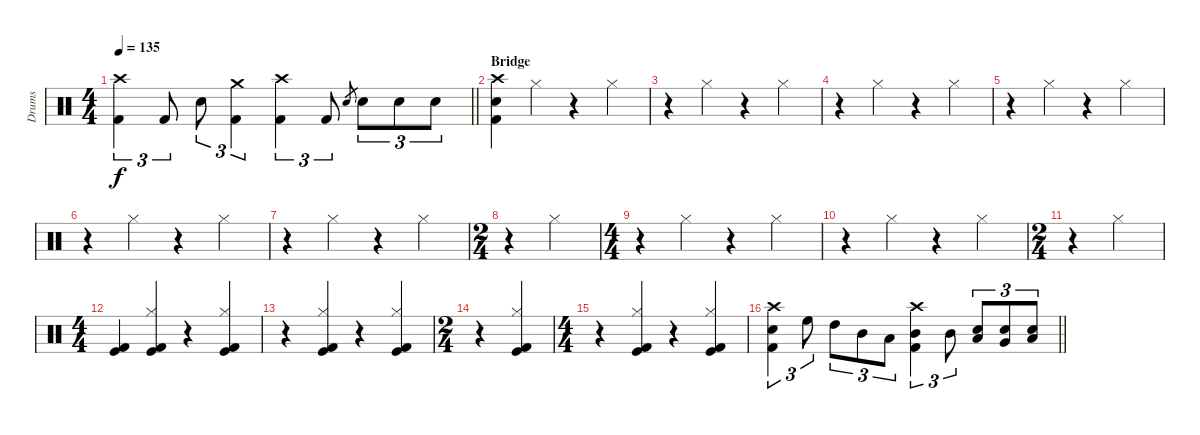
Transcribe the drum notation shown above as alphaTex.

\track ("Drums" "Drums") {instrument percussion}
\staff {score}
\articulation defaults
\ts (4 4)
\tempo 135
\clef neutral
\barLineRight lightlight
\ks c
("Crash high (hit)" "Kick (hit) 2").4{tu (3 2) dy f} "Kick (hit) 2".8{tu (3 2)} "Snare (hit) 2".8{tu (3 2)} ("Crash medium (hit)" "Kick (hit) 2").4{tu (3 2)} ("Crash high (hit)" "Kick (hit) 2").4{tu (3 2)} "Kick (hit) 2".8{tu (3 2)} "Snare (hit) 2".8{gr} "Snare (hit) 2".8{tu (3 2)} "Snare (hit) 2".8{tu (3 2)} "Snare (hit) 2".8{tu (3 2)} |
\section ("" "Bridge")
("Crash high (hit)" "Snare (hit) 2" "Kick (hit) 2").4 "Hi-Hat (closed)".4 r.4 "Hi-Hat (closed)".4 |
r.4 "Hi-Hat (closed)".4 r.4 "Hi-Hat (closed)".4 |
r.4 "Hi-Hat (closed)".4 r.4 "Hi-Hat (closed)".4 |
r.4 "Hi-Hat (closed)".4 r.4 "Hi-Hat (closed)".4 |
r.4 "Hi-Hat (closed)".4 r.4 "Hi-Hat (closed)".4 |
r.4 "Hi-Hat (closed)".4 r.4 "Hi-Hat (closed)".4 |
\ts (2 4)
r.4 "Hi-Hat (closed)".4 |
\ts (4 4)
r.4 "Hi-Hat (closed)".4 r.4 "Hi-Hat (closed)".4 |
r.4 "Hi-Hat (closed)".4 r.4 "Hi-Hat (closed)".4 |
\ts (2 4)
r.4 "Hi-Hat (closed)".4 |
\ts (4 4)
("Kick (hit)" "Kick (hit) 2").4 ("Hi-Hat (closed)" "Kick (hit)" "Kick (hit) 2").4 r.4 ("Hi-Hat (closed)" "Kick (hit)" "Kick (hit) 2").4 |
r.4 ("Hi-Hat (closed)" "Kick (hit)" "Kick (hit) 2").4 r.4 ("Hi-Hat (closed)" "Kick (hit)" "Kick (hit) 2").4 |
\ts (2 4)
r.4 ("Hi-Hat (closed)" "Kick (hit)" "Kick (hit) 2").4 |
\ts (4 4)
r.4 ("Hi-Hat (closed)" "Kick (hit)" "Kick (hit) 2").4 r.4 ("Hi-Hat (closed)" "Kick (hit)" "Kick (hit) 2").4 |
\barLineRight lightlight
("Crash high (hit)" "Snare (hit) 2" "Kick (hit) 2").4{tu (3 2)} "High Floor Tom (hit)".8{tu (3 2)} "High Tom (hit)".8{tu (3 2)} "Mid Tom (hit)".8{tu (3 2)} "Low Tom (hit)".8{tu (3 2)} ("Crash high (hit)" "Mid Tom (hit)" "Kick (hit) 2").4{tu (3 2)} "Mid Tom (hit)".8{tu (3 2)} ("Low Tom (hit)" "Snare (hit) 2").8{tu (3 2)} ("Very Low Tom (hit)" "Snare (hit) 2").8{tu (3 2)} ("Low Floor Tom (hit)" "Snare (hit) 2").8{tu (3 2)}
